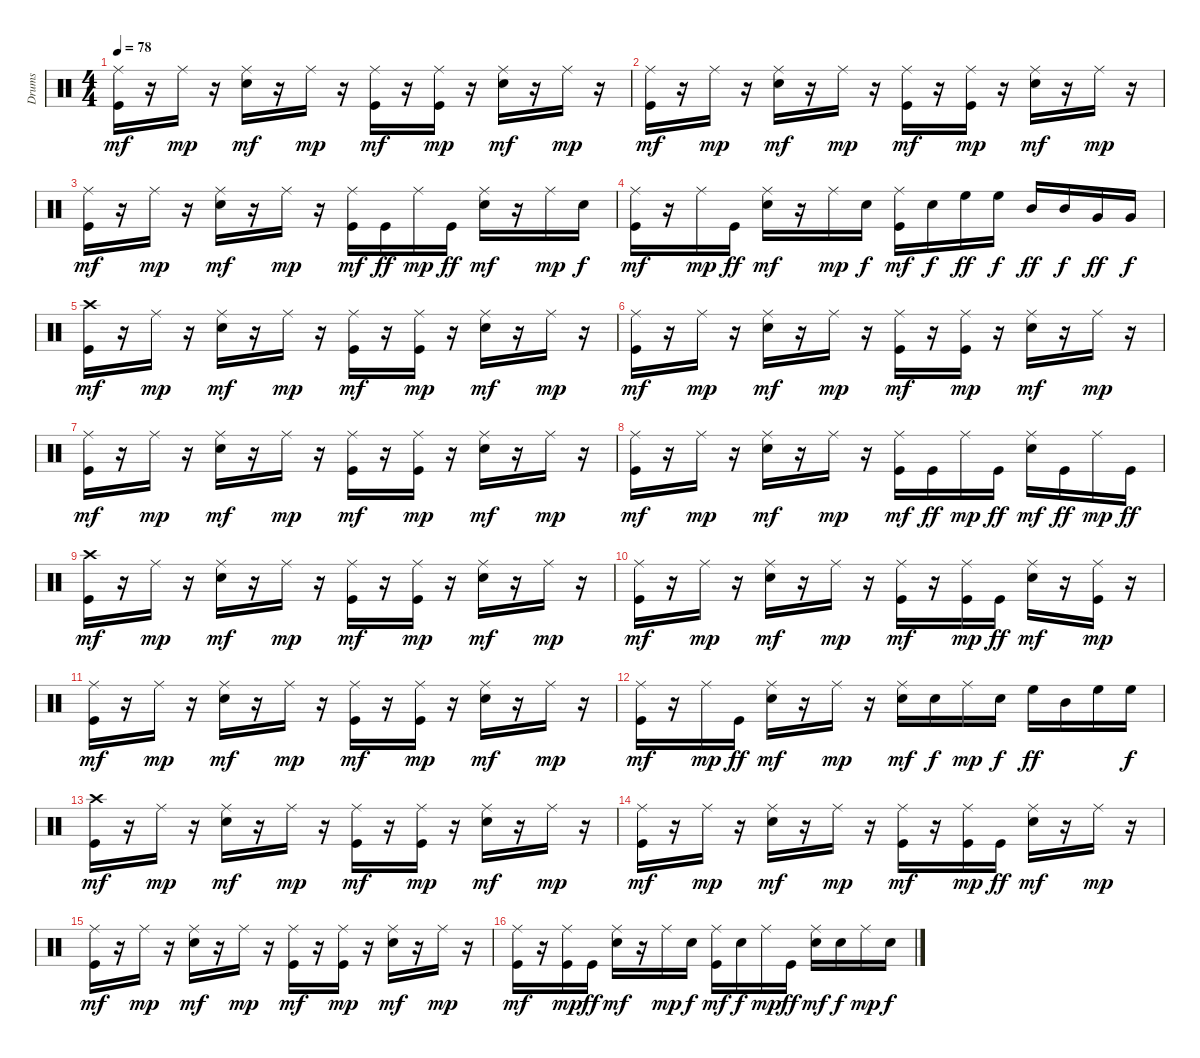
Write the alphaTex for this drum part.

\track ("Drums" "Drums") {instrument percussion}
\staff {score}
\articulation defaults
\ts (4 4)
\tempo 78
\clef neutral
\ks c
("Kick (hit)" "Ride (middle)").16{dy mf} r.16 "Ride (middle)".16{dy mp} r.16 ("Snare (hit) 2" "Ride (middle)").16{dy mf} r.16 "Ride (middle)".16{dy mp} r.16 ("Kick (hit)" "Ride (middle)").16{dy mf} r.16 ("Kick (hit)" "Ride (middle)").16{dy mp} r.16 ("Snare (hit) 2" "Ride (middle)").16{dy mf} r.16 "Ride (middle)".16{dy mp} r.16 |
("Kick (hit)" "Ride (middle)").16{dy mf} r.16 "Ride (middle)".16{dy mp} r.16 ("Snare (hit) 2" "Ride (middle)").16{dy mf} r.16 "Ride (middle)".16{dy mp} r.16 ("Kick (hit)" "Ride (middle)").16{dy mf} r.16 ("Kick (hit)" "Ride (middle)").16{dy mp} r.16 ("Snare (hit) 2" "Ride (middle)").16{dy mf} r.16 "Ride (middle)".16{dy mp} r.16 |
("Kick (hit)" "Ride (middle)").16{dy mf} r.16 "Ride (middle)".16{dy mp} r.16 ("Snare (hit) 2" "Ride (middle)").16{dy mf} r.16 "Ride (middle)".16{dy mp} r.16 ("Kick (hit)" "Ride (middle)").16{dy mf} "Kick (hit)".16{dy ff} "Ride (middle)".16{dy mp} "Kick (hit)".16{dy ff} ("Snare (hit) 2" "Ride (middle)").16{dy mf} r.16 "Ride (middle)".16{dy mp} "Snare (hit) 2".16{dy f} |
("Kick (hit)" "Ride (middle)").16{dy mf} r.16 "Ride (middle)".16{dy mp} "Kick (hit)".16{dy ff} ("Snare (hit) 2" "Ride (middle)").16{dy mf} r.16 "Ride (middle)".16{dy mp} "Snare (hit) 2".16{dy f} ("Kick (hit)" "Ride (middle)").16{dy mf} "Snare (hit) 2".16{dy f} "High Floor Tom (hit)".16{dy ff} "High Floor Tom (hit)".16{dy f} "Mid Tom (hit)".16{dy ff} "Mid Tom (hit)".16{dy f} "Very Low Tom (hit)".16{dy ff} "Very Low Tom (hit)".16{dy f} |
("Kick (hit)" "Crash high (hit)").16{dy mf} r.16 "Ride (middle)".16{dy mp} r.16 ("Snare (hit) 2" "Ride (middle)").16{dy mf} r.16 "Ride (middle)".16{dy mp} r.16 ("Kick (hit)" "Ride (middle)").16{dy mf} r.16 ("Kick (hit)" "Ride (middle)").16{dy mp} r.16 ("Snare (hit) 2" "Ride (middle)").16{dy mf} r.16 "Ride (middle)".16{dy mp} r.16 |
("Kick (hit)" "Ride (middle)").16{dy mf} r.16 "Ride (middle)".16{dy mp} r.16 ("Snare (hit) 2" "Ride (middle)").16{dy mf} r.16 "Ride (middle)".16{dy mp} r.16 ("Kick (hit)" "Ride (middle)").16{dy mf} r.16 ("Kick (hit)" "Ride (middle)").16{dy mp} r.16 ("Snare (hit) 2" "Ride (middle)").16{dy mf} r.16 "Ride (middle)".16{dy mp} r.16 |
("Kick (hit)" "Ride (middle)").16{dy mf} r.16 "Ride (middle)".16{dy mp} r.16 ("Snare (hit) 2" "Ride (middle)").16{dy mf} r.16 "Ride (middle)".16{dy mp} r.16 ("Kick (hit)" "Ride (middle)").16{dy mf} r.16 ("Kick (hit)" "Ride (middle)").16{dy mp} r.16 ("Snare (hit) 2" "Ride (middle)").16{dy mf} r.16 "Ride (middle)".16{dy mp} r.16 |
("Kick (hit)" "Ride (middle)").16{dy mf} r.16 "Ride (middle)".16{dy mp} r.16 ("Snare (hit) 2" "Ride (middle)").16{dy mf} r.16 "Ride (middle)".16{dy mp} r.16 ("Kick (hit)" "Ride (middle)").16{dy mf} "Kick (hit)".16{dy ff} "Ride (middle)".16{dy mp} "Kick (hit)".16{dy ff} ("Snare (hit) 2" "Ride (middle)").16{dy mf} "Kick (hit)".16{dy ff} "Ride (middle)".16{dy mp} "Kick (hit)".16{dy ff} |
("Kick (hit)" "Crash high (hit)").16{dy mf} r.16 "Ride (middle)".16{dy mp} r.16 ("Snare (hit) 2" "Ride (middle)").16{dy mf} r.16 "Ride (middle)".16{dy mp} r.16 ("Kick (hit)" "Ride (middle)").16{dy mf} r.16 ("Kick (hit)" "Ride (middle)").16{dy mp} r.16 ("Snare (hit) 2" "Ride (middle)").16{dy mf} r.16 "Ride (middle)".16{dy mp} r.16 |
("Kick (hit)" "Ride (middle)").16{dy mf} r.16 "Ride (middle)".16{dy mp} r.16 ("Snare (hit) 2" "Ride (middle)").16{dy mf} r.16 "Ride (middle)".16{dy mp} r.16 ("Kick (hit)" "Ride (middle)").16{dy mf} r.16 ("Kick (hit)" "Ride (middle)").16{dy mp} "Kick (hit)".16{dy ff} ("Snare (hit) 2" "Ride (middle)").16{dy mf} r.16 ("Kick (hit)" "Ride (middle)").16{dy mp} r.16 |
("Kick (hit)" "Ride (middle)").16{dy mf} r.16 "Ride (middle)".16{dy mp} r.16 ("Snare (hit) 2" "Ride (middle)").16{dy mf} r.16 "Ride (middle)".16{dy mp} r.16 ("Kick (hit)" "Ride (middle)").16{dy mf} r.16 ("Kick (hit)" "Ride (middle)").16{dy mp} r.16 ("Snare (hit) 2" "Ride (middle)").16{dy mf} r.16 "Ride (middle)".16{dy mp} r.16 |
("Kick (hit)" "Ride (middle)").16{dy mf} r.16 "Ride (middle)".16{dy mp} "Kick (hit)".16{dy ff} ("Snare (hit) 2" "Ride (middle)").16{dy mf} r.16 "Ride (middle)".16{dy mp} r.16 ("Snare (hit) 2" "Ride (middle)").16{dy mf} "Snare (hit) 2".16{dy f} "Ride (middle)".16{dy mp} "Snare (hit) 2".16{dy f} "High Floor Tom (hit)".16{dy ff} "Mid Tom (hit)".16 "High Floor Tom (hit)".16 "High Floor Tom (hit)".16{dy f} |
("Kick (hit)" "Crash high (hit)").16{dy mf} r.16 "Ride (middle)".16{dy mp} r.16 ("Snare (hit) 2" "Ride (middle)").16{dy mf} r.16 "Ride (middle)".16{dy mp} r.16 ("Kick (hit)" "Ride (middle)").16{dy mf} r.16 ("Kick (hit)" "Ride (middle)").16{dy mp} r.16 ("Snare (hit) 2" "Ride (middle)").16{dy mf} r.16 "Ride (middle)".16{dy mp} r.16 |
("Kick (hit)" "Ride (middle)").16{dy mf} r.16 "Ride (middle)".16{dy mp} r.16 ("Snare (hit) 2" "Ride (middle)").16{dy mf} r.16 "Ride (middle)".16{dy mp} r.16 ("Kick (hit)" "Ride (middle)").16{dy mf} r.16 ("Kick (hit)" "Ride (middle)").16{dy mp} "Kick (hit)".16{dy ff} ("Snare (hit) 2" "Ride (middle)").16{dy mf} r.16 "Ride (middle)".16{dy mp} r.16 |
("Kick (hit)" "Ride (middle)").16{dy mf} r.16 "Ride (middle)".16{dy mp} r.16 ("Snare (hit) 2" "Ride (middle)").16{dy mf} r.16 "Ride (middle)".16{dy mp} r.16 ("Kick (hit)" "Ride (middle)").16{dy mf} r.16 ("Kick (hit)" "Ride (middle)").16{dy mp} r.16 ("Snare (hit) 2" "Ride (middle)").16{dy mf} r.16 "Ride (middle)".16{dy mp} r.16 |
("Kick (hit)" "Ride (middle)").16{dy mf} r.16 ("Kick (hit)" "Ride (middle)").16{dy mp} "Kick (hit)".16{dy ff} ("Snare (hit) 2" "Ride (middle)").16{dy mf} r.16 "Ride (middle)".16{dy mp} "Snare (hit) 2".16{dy f} ("Kick (hit)" "Ride (middle)").16{dy mf} "Snare (hit) 2".16{dy f} "Ride (middle)".16{dy mp} "Kick (hit)".16{dy ff} ("Snare (hit) 2" "Ride (middle)").16{dy mf} "Snare (hit) 2".16{dy f} "Ride (middle)".16{dy mp} "Snare (hit) 2".16{dy f}
